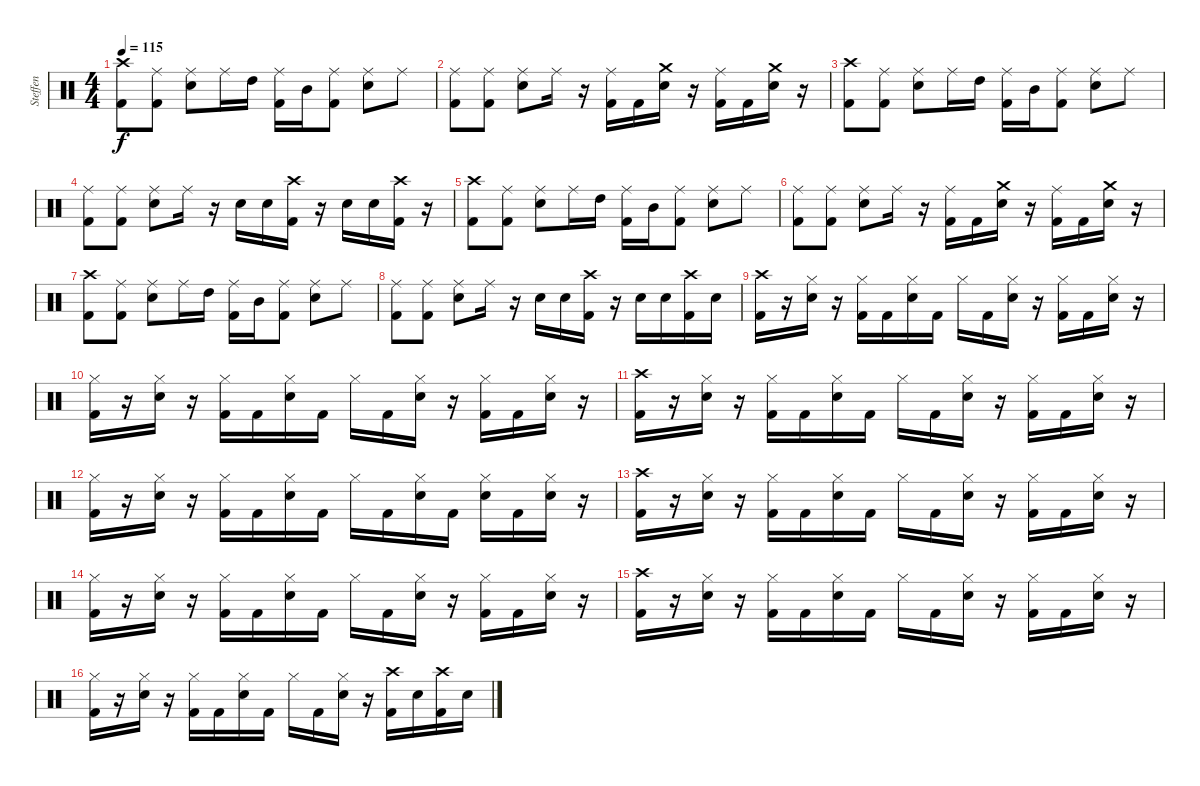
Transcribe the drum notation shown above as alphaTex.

\track ("Steffen" "Steffen") {instrument percussion}
\staff {score}
\articulation defaults
\ts (4 4)
\tempo 115
\clef neutral
\ks c
("Crash high (hit)" "Kick (hit) 2").8{dy f} ("Ride (middle)" "Kick (hit) 2").8 ("Ride (middle)" "Snare (hit) 2").8 "Ride (middle)".16 "High Tom (hit)".16 ("Ride (middle)" "Kick (hit) 2").16 "Mid Tom (hit)".16 ("Ride (middle)" "Kick (hit) 2").8 ("Ride (middle)" "Snare (hit) 2").8 "Ride (middle)".8 |
("Ride (middle)" "Kick (hit) 2").8 ("Ride (middle)" "Kick (hit) 2").8 ("Ride (middle)" "Snare (hit) 2").8 "Ride (middle)".16 r.16 ("Ride (middle)" "Kick (hit) 2").16 "Kick (hit) 2".16 ("Crash medium (hit)" "Snare (hit) 2").16 r.16 ("Ride (middle)" "Kick (hit) 2").16 "Kick (hit) 2".16 ("Crash medium (hit)" "Snare (hit) 2").16 r.16 |
("Crash high (hit)" "Kick (hit) 2").8 ("Ride (middle)" "Kick (hit) 2").8 ("Ride (middle)" "Snare (hit) 2").8 "Ride (middle)".16 "High Tom (hit)".16 ("Ride (middle)" "Kick (hit) 2").16 "Mid Tom (hit)".16 ("Ride (middle)" "Kick (hit) 2").8 ("Ride (middle)" "Snare (hit) 2").8 "Ride (middle)".8 |
("Ride (middle)" "Kick (hit) 2").8 ("Ride (middle)" "Kick (hit) 2").8 ("Ride (middle)" "Snare (hit) 2").8 "Ride (middle)".16 r.16 "Snare (hit) 2".16 "Snare (hit) 2".16 ("Crash high (hit)" "Kick (hit) 2").16 r.16 "Snare (hit) 2".16 "Snare (hit) 2".16 ("Crash high (hit)" "Kick (hit) 2").16 r.16 |
("Crash high (hit)" "Kick (hit) 2").8 ("Ride (middle)" "Kick (hit) 2").8 ("Ride (middle)" "Snare (hit) 2").8 "Ride (middle)".16 "High Tom (hit)".16 ("Ride (middle)" "Kick (hit) 2").16 "Mid Tom (hit)".16 ("Ride (middle)" "Kick (hit) 2").8 ("Ride (middle)" "Snare (hit) 2").8 "Ride (middle)".8 |
("Ride (middle)" "Kick (hit) 2").8 ("Ride (middle)" "Kick (hit) 2").8 ("Ride (middle)" "Snare (hit) 2").8 "Ride (middle)".16 r.16 ("Ride (middle)" "Kick (hit) 2").16 "Kick (hit) 2".16 ("Crash medium (hit)" "Snare (hit) 2").16 r.16 ("Ride (middle)" "Kick (hit) 2").16 "Kick (hit) 2".16 ("Crash medium (hit)" "Snare (hit) 2").16 r.16 |
("Crash high (hit)" "Kick (hit) 2").8 ("Ride (middle)" "Kick (hit) 2").8 ("Ride (middle)" "Snare (hit) 2").8 "Ride (middle)".16 "High Tom (hit)".16 ("Ride (middle)" "Kick (hit) 2").16 "Mid Tom (hit)".16 ("Ride (middle)" "Kick (hit) 2").8 ("Ride (middle)" "Snare (hit) 2").8 "Ride (middle)".8 |
("Ride (middle)" "Kick (hit) 2").8 ("Ride (middle)" "Kick (hit) 2").8 ("Ride (middle)" "Snare (hit) 2").8 "Ride (middle)".16 r.16 "Snare (hit) 2".16 "Snare (hit) 2".16 ("Crash high (hit)" "Kick (hit) 2").16 r.16 "Snare (hit) 2".16 "Snare (hit) 2".16 ("Crash high (hit)" "Kick (hit) 2").16 "Snare (hit) 2".16 |
("Crash high (hit)" "Kick (hit) 2").16 r.16 ("Hi-Hat (closed)" "Snare (hit) 2").16 r.16 ("Hi-Hat (closed)" "Kick (hit) 2").16 "Kick (hit) 2".16 ("Hi-Hat (closed)" "Snare (hit) 2").16 "Kick (hit) 2".16 "Hi-Hat (closed)".16 "Kick (hit) 2".16 ("Hi-Hat (closed)" "Snare (hit) 2").16 r.16 ("Hi-Hat (closed)" "Kick (hit) 2").16 "Kick (hit) 2".16 ("Hi-Hat (closed)" "Snare (hit) 2").16 r.16 |
("Hi-Hat (closed)" "Kick (hit) 2").16 r.16 ("Hi-Hat (closed)" "Snare (hit) 2").16 r.16 ("Hi-Hat (closed)" "Kick (hit) 2").16 "Kick (hit) 2".16 ("Hi-Hat (closed)" "Snare (hit) 2").16 "Kick (hit) 2".16 "Hi-Hat (closed)".16 "Kick (hit) 2".16 ("Hi-Hat (closed)" "Snare (hit) 2").16 r.16 ("Hi-Hat (closed)" "Kick (hit) 2").16 "Kick (hit) 2".16 ("Hi-Hat (closed)" "Snare (hit) 2").16 r.16 |
("Crash high (hit)" "Kick (hit) 2").16 r.16 ("Hi-Hat (closed)" "Snare (hit) 2").16 r.16 ("Hi-Hat (closed)" "Kick (hit) 2").16 "Kick (hit) 2".16 ("Hi-Hat (closed)" "Snare (hit) 2").16 "Kick (hit) 2".16 "Hi-Hat (closed)".16 "Kick (hit) 2".16 ("Hi-Hat (closed)" "Snare (hit) 2").16 r.16 ("Hi-Hat (closed)" "Kick (hit) 2").16 "Kick (hit) 2".16 ("Hi-Hat (closed)" "Snare (hit) 2").16 r.16 |
("Hi-Hat (closed)" "Kick (hit) 2").16 r.16 ("Hi-Hat (closed)" "Snare (hit) 2").16 r.16 ("Hi-Hat (closed)" "Kick (hit) 2").16 "Kick (hit) 2".16 ("Hi-Hat (closed)" "Snare (hit) 2").16 "Kick (hit) 2".16 "Hi-Hat (closed)".16 "Kick (hit) 2".16 ("Hi-Hat (closed)" "Snare (hit) 2").16 "Kick (hit) 2".16 ("Hi-Hat (closed)" "Snare (hit) 2").16 "Kick (hit) 2".16 ("Hi-Hat (closed)" "Snare (hit) 2").16 r.16 |
("Crash high (hit)" "Kick (hit) 2").16 r.16 ("Hi-Hat (closed)" "Snare (hit) 2").16 r.16 ("Hi-Hat (closed)" "Kick (hit) 2").16 "Kick (hit) 2".16 ("Hi-Hat (closed)" "Snare (hit) 2").16 "Kick (hit) 2".16 "Hi-Hat (closed)".16 "Kick (hit) 2".16 ("Hi-Hat (closed)" "Snare (hit) 2").16 r.16 ("Hi-Hat (closed)" "Kick (hit) 2").16 "Kick (hit) 2".16 ("Hi-Hat (closed)" "Snare (hit) 2").16 r.16 |
("Hi-Hat (closed)" "Kick (hit) 2").16 r.16 ("Hi-Hat (closed)" "Snare (hit) 2").16 r.16 ("Hi-Hat (closed)" "Kick (hit) 2").16 "Kick (hit) 2".16 ("Hi-Hat (closed)" "Snare (hit) 2").16 "Kick (hit) 2".16 "Hi-Hat (closed)".16 "Kick (hit) 2".16 ("Hi-Hat (closed)" "Snare (hit) 2").16 r.16 ("Hi-Hat (closed)" "Kick (hit) 2").16 "Kick (hit) 2".16 ("Hi-Hat (closed)" "Snare (hit) 2").16 r.16 |
("Crash high (hit)" "Kick (hit) 2").16 r.16 ("Hi-Hat (closed)" "Snare (hit) 2").16 r.16 ("Hi-Hat (closed)" "Kick (hit) 2").16 "Kick (hit) 2".16 ("Hi-Hat (closed)" "Snare (hit) 2").16 "Kick (hit) 2".16 "Hi-Hat (closed)".16 "Kick (hit) 2".16 ("Hi-Hat (closed)" "Snare (hit) 2").16 r.16 ("Hi-Hat (closed)" "Kick (hit) 2").16 "Kick (hit) 2".16 ("Hi-Hat (closed)" "Snare (hit) 2").16 r.16 |
("Hi-Hat (closed)" "Kick (hit) 2").16 r.16 ("Hi-Hat (closed)" "Snare (hit) 2").16 r.16 ("Hi-Hat (closed)" "Kick (hit) 2").16 "Kick (hit) 2".16 ("Hi-Hat (closed)" "Snare (hit) 2").16 "Kick (hit) 2".16 "Hi-Hat (closed)".16 "Kick (hit) 2".16 ("Hi-Hat (closed)" "Snare (hit) 2").16 r.16 ("Crash high (hit)" "Kick (hit) 2").16 "Snare (hit) 2".16 ("Crash high (hit)" "Kick (hit) 2").16 "Snare (hit) 2".16
